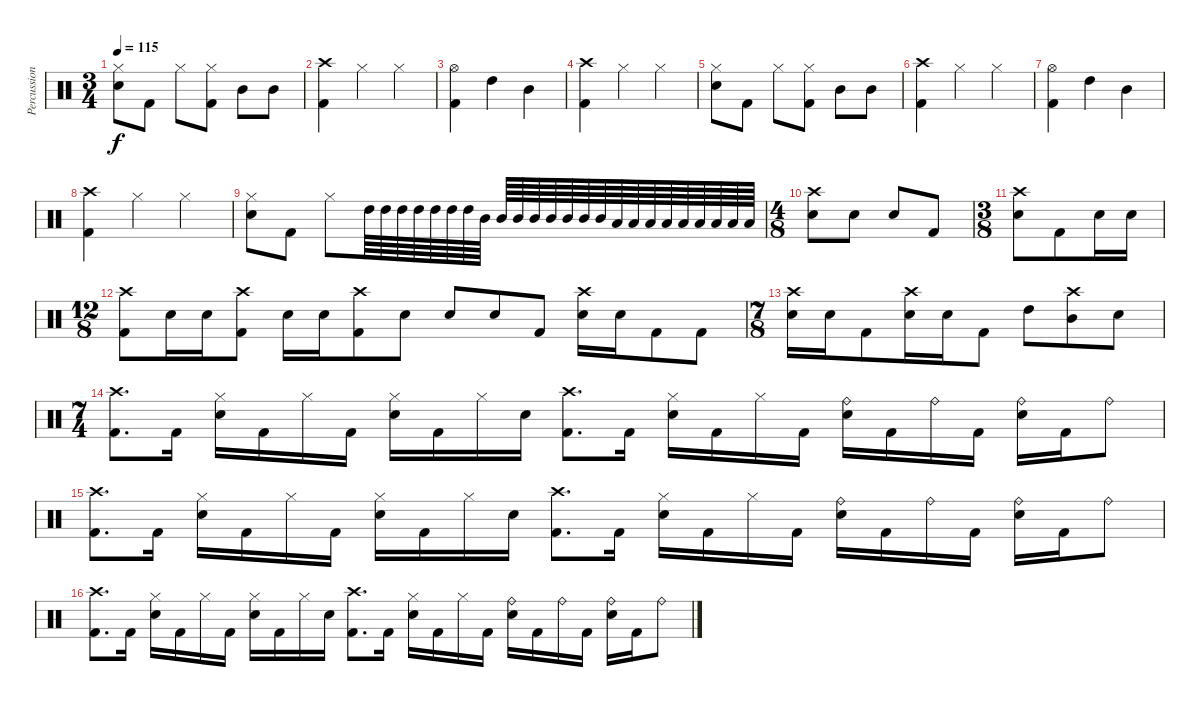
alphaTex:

\track ("Percussioni" "Percussion") {instrument percussion}
\staff {score}
\articulation defaults
\ts (3 4)
\tempo 115
\clef neutral
\ks c
("Hi-Hat (closed)" "Snare (hit) 2").8{dy f} "Kick (hit) 2".8 "Hi-Hat (closed)".8 ("Hi-Hat (closed)" "Kick (hit) 2").8 "Mid Tom (hit)".8 "Mid Tom (hit)".8 |
("Crash high (hit)" "Kick (hit) 2").4 "Hi-Hat (closed)".4 "Hi-Hat (closed)".4 |
("Hi-Hat (open)" "Kick (hit) 2").4 "High Tom (hit)".4 "Mid Tom (hit)".4 |
("Crash high (hit)" "Kick (hit) 2").4 "Hi-Hat (closed)".4 "Hi-Hat (closed)".4 |
("Hi-Hat (closed)" "Snare (hit) 2").8 "Kick (hit) 2".8 "Hi-Hat (closed)".8 ("Hi-Hat (closed)" "Kick (hit) 2").8 "Mid Tom (hit)".8 "Mid Tom (hit)".8 |
("Crash high (hit)" "Kick (hit) 2").4 "Hi-Hat (closed)".4 "Hi-Hat (closed)".4 |
("Hi-Hat (open)" "Kick (hit) 2").4 "High Tom (hit)".4 "Mid Tom (hit)".4 |
("Crash high (hit)" "Kick (hit) 2").4 "Hi-Hat (closed)".4 "Hi-Hat (closed)".4 |
("Hi-Hat (closed)" "Snare (hit) 2").8 "Kick (hit) 2".8 "Hi-Hat (closed)".8 "High Tom (hit)".64 "High Tom (hit)".64 "High Tom (hit)".64 "High Tom (hit)".64 "High Tom (hit)".64 "High Tom (hit)".64 "High Tom (hit)".64 "Mid Tom (hit)".64 "Mid Tom (hit)".64 "Mid Tom (hit)".64 "Mid Tom (hit)".64 "Mid Tom (hit)".64 "Mid Tom (hit)".64 "Mid Tom (hit)".64 "Mid Tom (hit)".64 "Low Tom (hit)".64 "Low Tom (hit)".64 "Low Tom (hit)".64 "Low Tom (hit)".64 "Low Tom (hit)".64 "Low Tom (hit)".64 "Low Tom (hit)".64 "Low Tom (hit)".64 "Low Tom (hit)".64 |
\ts (4 8)
("Crash high (hit)" "Snare (hit) 2").8 "Snare (hit) 2".8 "Snare (hit) 2".8 "Kick (hit) 2".8 |
\ts (3 8)
("Crash high (hit)" "Snare (hit) 2").8 "Kick (hit) 2".8 "Snare (hit) 2".16 "Snare (hit) 2".16 |
\ts (12 8)
("Crash high (hit)" "Kick (hit) 2").8 "Snare (hit) 2".16 "Snare (hit) 2".16 ("Crash high (hit)" "Kick (hit) 2").8 "Snare (hit) 2".16 "Snare (hit) 2".16 ("Crash high (hit)" "Kick (hit) 2").8 "Snare (hit) 2".8 "Snare (hit) 2".8 "Snare (hit) 2".8 "Kick (hit) 2".8 ("Crash high (hit)" "Snare (hit) 2").16 "Snare (hit) 2".16 "Kick (hit) 2".8 "Kick (hit) 2".8 |
\ts (7 8)
("Crash high (hit)" "Snare (hit) 2").16 "Snare (hit) 2".16 "Kick (hit) 2".8 ("Crash high (hit)" "Snare (hit) 2").16 "Snare (hit) 2".16 "Kick (hit) 2".8 "High Tom (hit)".8 ("Crash high (hit)" "Mid Tom (hit)").8 "Snare (hit) 2".8 |
\ts (7 4)
("Crash high (hit)" "Kick (hit) 2").8{d} "Kick (hit) 2".16 ("Hi-Hat (closed)" "Snare (hit) 2").16 "Kick (hit) 2".16 "Hi-Hat (closed)".16 "Kick (hit) 2".16 ("Hi-Hat (closed)" "Snare (hit) 2").16 "Kick (hit) 2".16 "Hi-Hat (closed)".16 "Snare (hit) 2".16 ("Crash high (hit)" "Kick (hit) 2").8{d} "Kick (hit) 2".16 ("Hi-Hat (closed)" "Snare (hit) 2").16 "Kick (hit) 2".16 "Hi-Hat (closed)".16 "Kick (hit) 2".16 ("Ride (bell)" "Snare (hit) 2").16 "Kick (hit) 2".16 "Ride (bell)".16 "Kick (hit) 2".16 ("Ride (bell)" "Snare (hit) 2").16 "Kick (hit) 2".16 "Ride (bell)".8 |
("Crash high (hit)" "Kick (hit) 2").8{d} "Kick (hit) 2".16 ("Hi-Hat (closed)" "Snare (hit) 2").16 "Kick (hit) 2".16 "Hi-Hat (closed)".16 "Kick (hit) 2".16 ("Hi-Hat (closed)" "Snare (hit) 2").16 "Kick (hit) 2".16 "Hi-Hat (closed)".16 "Snare (hit) 2".16 ("Crash high (hit)" "Kick (hit) 2").8{d} "Kick (hit) 2".16 ("Hi-Hat (closed)" "Snare (hit) 2").16 "Kick (hit) 2".16 "Hi-Hat (closed)".16 "Kick (hit) 2".16 ("Ride (bell)" "Snare (hit) 2").16 "Kick (hit) 2".16 "Ride (bell)".16 "Kick (hit) 2".16 ("Ride (bell)" "Snare (hit) 2").16 "Kick (hit) 2".16 "Ride (bell)".8 |
("Crash high (hit)" "Kick (hit) 2").8{d} "Kick (hit) 2".16 ("Hi-Hat (closed)" "Snare (hit) 2").16 "Kick (hit) 2".16 "Hi-Hat (closed)".16 "Kick (hit) 2".16 ("Hi-Hat (closed)" "Snare (hit) 2").16 "Kick (hit) 2".16 "Hi-Hat (closed)".16 "Snare (hit) 2".16 ("Crash high (hit)" "Kick (hit) 2").8{d} "Kick (hit) 2".16 ("Hi-Hat (closed)" "Snare (hit) 2").16 "Kick (hit) 2".16 "Hi-Hat (closed)".16 "Kick (hit) 2".16 ("Ride (bell)" "Snare (hit) 2").16 "Kick (hit) 2".16 "Ride (bell)".16 "Kick (hit) 2".16 ("Ride (bell)" "Snare (hit) 2").16 "Kick (hit) 2".16 "Ride (bell)".8
